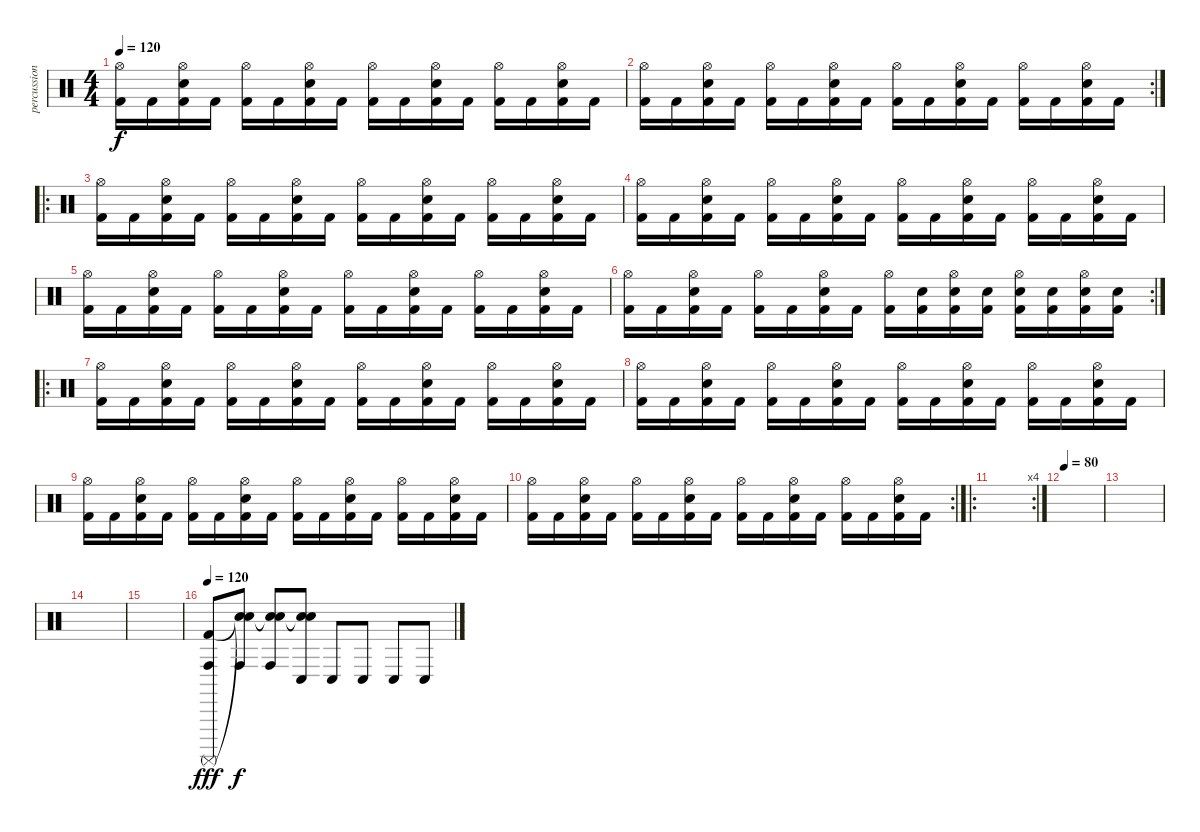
\track ("percussions" "percussion") {instrument percussion}
\staff {score}
\articulation defaults
\ts (4 4)
\tempo 120
\clef neutral
\ks c
("Hi-Hat (open)" "Kick (hit) 2").16{dy f} "Kick (hit) 2".16 ("Hi-Hat (open)" "Electric Snare (hit)" "Kick (hit) 2").16 "Kick (hit) 2".16 ("Hi-Hat (open)" "Kick (hit) 2").16 "Kick (hit) 2".16 ("Hi-Hat (open)" "Electric Snare (hit)" "Kick (hit) 2").16 "Kick (hit) 2".16 ("Hi-Hat (open)" "Kick (hit) 2").16 "Kick (hit) 2".16 ("Hi-Hat (open)" "Electric Snare (hit)" "Kick (hit) 2").16 "Kick (hit) 2".16 ("Hi-Hat (open)" "Kick (hit) 2").16 "Kick (hit) 2".16 ("Hi-Hat (open)" "Electric Snare (hit)" "Kick (hit) 2").16 "Kick (hit) 2".16 |
\rc 2
("Hi-Hat (open)" "Kick (hit) 2").16 "Kick (hit) 2".16 ("Hi-Hat (open)" "Electric Snare (hit)" "Kick (hit) 2").16 "Kick (hit) 2".16 ("Hi-Hat (open)" "Kick (hit) 2").16 "Kick (hit) 2".16 ("Hi-Hat (open)" "Electric Snare (hit)" "Kick (hit) 2").16 "Kick (hit) 2".16 ("Hi-Hat (open)" "Kick (hit) 2").16 "Kick (hit) 2".16 ("Hi-Hat (open)" "Electric Snare (hit)" "Kick (hit) 2").16 "Kick (hit) 2".16 ("Hi-Hat (open)" "Kick (hit) 2").16 "Kick (hit) 2".16 ("Hi-Hat (open)" "Electric Snare (hit)" "Kick (hit) 2").16 "Kick (hit) 2".16 |
\ro
("Hi-Hat (open)" "Kick (hit) 2").16 "Kick (hit) 2".16 ("Hi-Hat (open)" "Electric Snare (hit)" "Kick (hit) 2").16 "Kick (hit) 2".16 ("Hi-Hat (open)" "Kick (hit) 2").16 "Kick (hit) 2".16 ("Hi-Hat (open)" "Electric Snare (hit)" "Kick (hit) 2").16 "Kick (hit) 2".16 ("Hi-Hat (open)" "Kick (hit) 2").16 "Kick (hit) 2".16 ("Hi-Hat (open)" "Electric Snare (hit)" "Kick (hit) 2").16 "Kick (hit) 2".16 ("Hi-Hat (open)" "Kick (hit) 2").16 "Kick (hit) 2".16 ("Hi-Hat (open)" "Electric Snare (hit)" "Kick (hit) 2").16 "Kick (hit) 2".16 |
("Hi-Hat (open)" "Kick (hit) 2").16 "Kick (hit) 2".16 ("Hi-Hat (open)" "Electric Snare (hit)" "Kick (hit) 2").16 "Kick (hit) 2".16 ("Hi-Hat (open)" "Kick (hit) 2").16 "Kick (hit) 2".16 ("Hi-Hat (open)" "Electric Snare (hit)" "Kick (hit) 2").16 "Kick (hit) 2".16 ("Hi-Hat (open)" "Kick (hit) 2").16 "Kick (hit) 2".16 ("Hi-Hat (open)" "Electric Snare (hit)" "Kick (hit) 2").16 "Kick (hit) 2".16 ("Hi-Hat (open)" "Kick (hit) 2").16 "Kick (hit) 2".16 ("Hi-Hat (open)" "Electric Snare (hit)" "Kick (hit) 2").16 "Kick (hit) 2".16 |
("Hi-Hat (open)" "Kick (hit) 2").16 "Kick (hit) 2".16 ("Hi-Hat (open)" "Electric Snare (hit)" "Kick (hit) 2").16 "Kick (hit) 2".16 ("Hi-Hat (open)" "Kick (hit) 2").16 "Kick (hit) 2".16 ("Hi-Hat (open)" "Electric Snare (hit)" "Kick (hit) 2").16 "Kick (hit) 2".16 ("Hi-Hat (open)" "Kick (hit) 2").16 "Kick (hit) 2".16 ("Hi-Hat (open)" "Electric Snare (hit)" "Kick (hit) 2").16 "Kick (hit) 2".16 ("Hi-Hat (open)" "Kick (hit) 2").16 "Kick (hit) 2".16 ("Hi-Hat (open)" "Electric Snare (hit)" "Kick (hit) 2").16 "Kick (hit) 2".16 |
\rc 2
("Hi-Hat (open)" "Kick (hit) 2").16 "Kick (hit) 2".16 ("Hi-Hat (open)" "Electric Snare (hit)" "Kick (hit) 2").16 "Kick (hit) 2".16 ("Hi-Hat (open)" "Kick (hit) 2").16 "Kick (hit) 2".16 ("Hi-Hat (open)" "Electric Snare (hit)" "Kick (hit) 2").16 "Kick (hit) 2".16 ("Hi-Hat (open)" "Kick (hit) 2").16 ("Electric Snare (hit)" "Kick (hit) 2").16 ("Hi-Hat (open)" "Electric Snare (hit)" "Kick (hit) 2").16 ("Electric Snare (hit)" "Kick (hit) 2").16 ("Hi-Hat (open)" "Electric Snare (hit)" "Kick (hit) 2").16 ("Electric Snare (hit)" "Kick (hit) 2").16 ("Hi-Hat (open)" "Electric Snare (hit)" "Kick (hit) 2").16 ("Electric Snare (hit)" "Kick (hit) 2").16 |
\ro
("Hi-Hat (open)" "Kick (hit) 2").16 "Kick (hit) 2".16 ("Hi-Hat (open)" "Electric Snare (hit)" "Kick (hit) 2").16 "Kick (hit) 2".16 ("Hi-Hat (open)" "Kick (hit) 2").16 "Kick (hit) 2".16 ("Hi-Hat (open)" "Electric Snare (hit)" "Kick (hit) 2").16 "Kick (hit) 2".16 ("Hi-Hat (open)" "Kick (hit) 2").16 "Kick (hit) 2".16 ("Hi-Hat (open)" "Electric Snare (hit)" "Kick (hit) 2").16 "Kick (hit) 2".16 ("Hi-Hat (open)" "Kick (hit) 2").16 "Kick (hit) 2".16 ("Hi-Hat (open)" "Electric Snare (hit)" "Kick (hit) 2").16 "Kick (hit) 2".16 |
("Hi-Hat (open)" "Kick (hit) 2").16 "Kick (hit) 2".16 ("Hi-Hat (open)" "Electric Snare (hit)" "Kick (hit) 2").16 "Kick (hit) 2".16 ("Hi-Hat (open)" "Kick (hit) 2").16 "Kick (hit) 2".16 ("Hi-Hat (open)" "Electric Snare (hit)" "Kick (hit) 2").16 "Kick (hit) 2".16 ("Hi-Hat (open)" "Kick (hit) 2").16 "Kick (hit) 2".16 ("Hi-Hat (open)" "Electric Snare (hit)" "Kick (hit) 2").16 "Kick (hit) 2".16 ("Hi-Hat (open)" "Kick (hit) 2").16 "Kick (hit) 2".16 ("Hi-Hat (open)" "Electric Snare (hit)" "Kick (hit) 2").16 "Kick (hit) 2".16 |
("Hi-Hat (open)" "Kick (hit) 2").16 "Kick (hit) 2".16 ("Hi-Hat (open)" "Electric Snare (hit)" "Kick (hit) 2").16 "Kick (hit) 2".16 ("Hi-Hat (open)" "Kick (hit) 2").16 "Kick (hit) 2".16 ("Hi-Hat (open)" "Electric Snare (hit)" "Kick (hit) 2").16 "Kick (hit) 2".16 ("Hi-Hat (open)" "Kick (hit) 2").16 "Kick (hit) 2".16 ("Hi-Hat (open)" "Electric Snare (hit)" "Kick (hit) 2").16 "Kick (hit) 2".16 ("Hi-Hat (open)" "Kick (hit) 2").16 "Kick (hit) 2".16 ("Hi-Hat (open)" "Electric Snare (hit)" "Kick (hit) 2").16 "Kick (hit) 2".16 |
\rc 2
("Hi-Hat (open)" "Kick (hit) 2").16 "Kick (hit) 2".16 ("Hi-Hat (open)" "Electric Snare (hit)" "Kick (hit) 2").16 "Kick (hit) 2".16 ("Hi-Hat (open)" "Kick (hit) 2").16 "Kick (hit) 2".16 ("Hi-Hat (open)" "Electric Snare (hit)" "Kick (hit) 2").16 "Kick (hit) 2".16 ("Hi-Hat (open)" "Kick (hit) 2").16 "Kick (hit) 2".16 ("Hi-Hat (open)" "Electric Snare (hit)" "Kick (hit) 2").16 "Kick (hit) 2".16 ("Hi-Hat (open)" "Kick (hit) 2").16 "Kick (hit) 2".16 ("Hi-Hat (open)" "Electric Snare (hit)" "Kick (hit) 2").16 "Kick (hit) 2".16 |
\ro
\rc 4
|
\tempo 80
|
|
|
|
\tempo 120
("Surdo (mute)" "Kick (hit) 2" "Conga high (hit)").8{dy fff} ("Snare (hit)"{t} "Snare (hit)"{t} "Conga high (hit)").8{dy f} ("Snare (hit)"{t} "Snare (hit)"{t} "Conga high (hit)").8 ("Snare (hit)"{t} "Snare (hit)"{t} "Conga low (hit)").8 "Conga low (hit)".8 "Conga low (hit)".8 "Conga low (hit)".8 "Conga low (hit)".8
